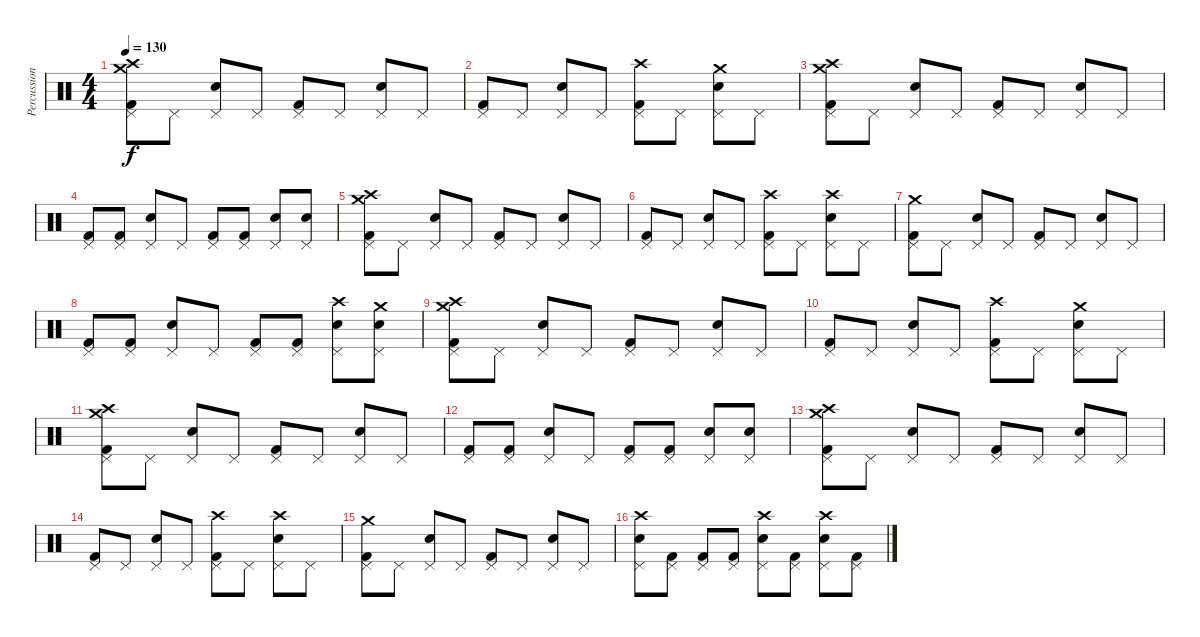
\track ("Percussion" "Percussion") {instrument percussion}
\staff {score}
\articulation defaults
\ts (4 4)
\tempo 130
\clef neutral
\ks c
("Crash medium (hit)" "Crash high (hit)" "Pedal Hi-Hat (hit)" "Kick (hit) 2").8{dy f} "Pedal Hi-Hat (hit)".8 ("Pedal Hi-Hat (hit)" "Snare (hit) 2").8 "Pedal Hi-Hat (hit)".8 ("Pedal Hi-Hat (hit)" "Kick (hit) 2").8 "Pedal Hi-Hat (hit)".8 ("Pedal Hi-Hat (hit)" "Snare (hit) 2").8 "Pedal Hi-Hat (hit)".8 |
("Pedal Hi-Hat (hit)" "Kick (hit) 2").8 "Pedal Hi-Hat (hit)".8 ("Pedal Hi-Hat (hit)" "Snare (hit) 2").8 "Pedal Hi-Hat (hit)".8 ("Crash high (hit)" "Pedal Hi-Hat (hit)" "Kick (hit) 2").8 "Pedal Hi-Hat (hit)".8 ("Crash medium (hit)" "Pedal Hi-Hat (hit)" "Snare (hit) 2").8 "Pedal Hi-Hat (hit)".8 |
("Crash medium (hit)" "Crash high (hit)" "Pedal Hi-Hat (hit)" "Kick (hit) 2").8 "Pedal Hi-Hat (hit)".8 ("Pedal Hi-Hat (hit)" "Snare (hit) 2").8 "Pedal Hi-Hat (hit)".8 ("Pedal Hi-Hat (hit)" "Kick (hit) 2").8 "Pedal Hi-Hat (hit)".8 ("Pedal Hi-Hat (hit)" "Snare (hit) 2").8 "Pedal Hi-Hat (hit)".8 |
("Pedal Hi-Hat (hit)" "Kick (hit) 2").8 ("Pedal Hi-Hat (hit)" "Kick (hit) 2").8 ("Pedal Hi-Hat (hit)" "Snare (hit) 2").8 "Pedal Hi-Hat (hit)".8 ("Pedal Hi-Hat (hit)" "Kick (hit) 2").8 ("Pedal Hi-Hat (hit)" "Kick (hit) 2").8 ("Pedal Hi-Hat (hit)" "Snare (hit) 2").8 ("Pedal Hi-Hat (hit)" "Snare (hit) 2").8 |
("Crash medium (hit)" "Crash high (hit)" "Pedal Hi-Hat (hit)" "Kick (hit) 2").8 "Pedal Hi-Hat (hit)".8 ("Pedal Hi-Hat (hit)" "Snare (hit) 2").8 "Pedal Hi-Hat (hit)".8 ("Pedal Hi-Hat (hit)" "Kick (hit) 2").8 "Pedal Hi-Hat (hit)".8 ("Pedal Hi-Hat (hit)" "Snare (hit) 2").8 "Pedal Hi-Hat (hit)".8 |
("Pedal Hi-Hat (hit)" "Kick (hit) 2").8 "Pedal Hi-Hat (hit)".8 ("Pedal Hi-Hat (hit)" "Snare (hit) 2").8 "Pedal Hi-Hat (hit)".8 ("Crash high (hit)" "Pedal Hi-Hat (hit)" "Kick (hit) 2").8 "Pedal Hi-Hat (hit)".8 ("Crash high (hit)" "Pedal Hi-Hat (hit)" "Snare (hit) 2").8 "Pedal Hi-Hat (hit)".8 |
("Crash medium (hit)" "Pedal Hi-Hat (hit)" "Kick (hit) 2").8 "Pedal Hi-Hat (hit)".8 ("Pedal Hi-Hat (hit)" "Snare (hit) 2").8 "Pedal Hi-Hat (hit)".8 ("Pedal Hi-Hat (hit)" "Kick (hit) 2").8 "Pedal Hi-Hat (hit)".8 ("Pedal Hi-Hat (hit)" "Snare (hit) 2").8 "Pedal Hi-Hat (hit)".8 |
("Pedal Hi-Hat (hit)" "Kick (hit) 2").8 ("Pedal Hi-Hat (hit)" "Kick (hit) 2").8 ("Pedal Hi-Hat (hit)" "Snare (hit) 2").8 "Pedal Hi-Hat (hit)".8 ("Pedal Hi-Hat (hit)" "Kick (hit) 2").8 ("Pedal Hi-Hat (hit)" "Kick (hit) 2").8 ("Crash high (hit)" "Pedal Hi-Hat (hit)" "Snare (hit) 2").8 ("Crash medium (hit)" "Pedal Hi-Hat (hit)" "Snare (hit) 2").8 |
("Crash medium (hit)" "Crash high (hit)" "Pedal Hi-Hat (hit)" "Kick (hit) 2").8 "Pedal Hi-Hat (hit)".8 ("Pedal Hi-Hat (hit)" "Snare (hit) 2").8 "Pedal Hi-Hat (hit)".8 ("Pedal Hi-Hat (hit)" "Kick (hit) 2").8 "Pedal Hi-Hat (hit)".8 ("Pedal Hi-Hat (hit)" "Snare (hit) 2").8 "Pedal Hi-Hat (hit)".8 |
("Pedal Hi-Hat (hit)" "Kick (hit) 2").8 "Pedal Hi-Hat (hit)".8 ("Pedal Hi-Hat (hit)" "Snare (hit) 2").8 "Pedal Hi-Hat (hit)".8 ("Crash high (hit)" "Pedal Hi-Hat (hit)" "Kick (hit) 2").8 "Pedal Hi-Hat (hit)".8 ("Crash medium (hit)" "Pedal Hi-Hat (hit)" "Snare (hit) 2").8 "Pedal Hi-Hat (hit)".8 |
("Crash medium (hit)" "Crash high (hit)" "Pedal Hi-Hat (hit)" "Kick (hit) 2").8 "Pedal Hi-Hat (hit)".8 ("Pedal Hi-Hat (hit)" "Snare (hit) 2").8 "Pedal Hi-Hat (hit)".8 ("Pedal Hi-Hat (hit)" "Kick (hit) 2").8 "Pedal Hi-Hat (hit)".8 ("Pedal Hi-Hat (hit)" "Snare (hit) 2").8 "Pedal Hi-Hat (hit)".8 |
("Pedal Hi-Hat (hit)" "Kick (hit) 2").8 ("Pedal Hi-Hat (hit)" "Kick (hit) 2").8 ("Pedal Hi-Hat (hit)" "Snare (hit) 2").8 "Pedal Hi-Hat (hit)".8 ("Pedal Hi-Hat (hit)" "Kick (hit) 2").8 ("Pedal Hi-Hat (hit)" "Kick (hit) 2").8 ("Pedal Hi-Hat (hit)" "Snare (hit) 2").8 ("Pedal Hi-Hat (hit)" "Snare (hit) 2").8 |
("Crash medium (hit)" "Crash high (hit)" "Pedal Hi-Hat (hit)" "Kick (hit) 2").8 "Pedal Hi-Hat (hit)".8 ("Pedal Hi-Hat (hit)" "Snare (hit) 2").8 "Pedal Hi-Hat (hit)".8 ("Pedal Hi-Hat (hit)" "Kick (hit) 2").8 "Pedal Hi-Hat (hit)".8 ("Pedal Hi-Hat (hit)" "Snare (hit) 2").8 "Pedal Hi-Hat (hit)".8 |
("Pedal Hi-Hat (hit)" "Kick (hit) 2").8 "Pedal Hi-Hat (hit)".8 ("Pedal Hi-Hat (hit)" "Snare (hit) 2").8 "Pedal Hi-Hat (hit)".8 ("Crash high (hit)" "Pedal Hi-Hat (hit)" "Kick (hit) 2").8 "Pedal Hi-Hat (hit)".8 ("Crash high (hit)" "Pedal Hi-Hat (hit)" "Snare (hit) 2").8 "Pedal Hi-Hat (hit)".8 |
("Crash medium (hit)" "Pedal Hi-Hat (hit)" "Kick (hit) 2").8 "Pedal Hi-Hat (hit)".8 ("Pedal Hi-Hat (hit)" "Snare (hit) 2").8 "Pedal Hi-Hat (hit)".8 ("Pedal Hi-Hat (hit)" "Kick (hit) 2").8 "Pedal Hi-Hat (hit)".8 ("Pedal Hi-Hat (hit)" "Snare (hit) 2").8 "Pedal Hi-Hat (hit)".8 |
("Crash high (hit)" "Pedal Hi-Hat (hit)" "Snare (hit) 2").8 ("Pedal Hi-Hat (hit)" "Kick (hit) 2").8 ("Pedal Hi-Hat (hit)" "Kick (hit) 2").8 ("Pedal Hi-Hat (hit)" "Kick (hit) 2").8 ("Crash high (hit)" "Pedal Hi-Hat (hit)" "Snare (hit) 2").8 ("Pedal Hi-Hat (hit)" "Kick (hit) 2").8 ("Crash high (hit)" "Pedal Hi-Hat (hit)" "Snare (hit) 2").8 ("Pedal Hi-Hat (hit)" "Kick (hit) 2").8
